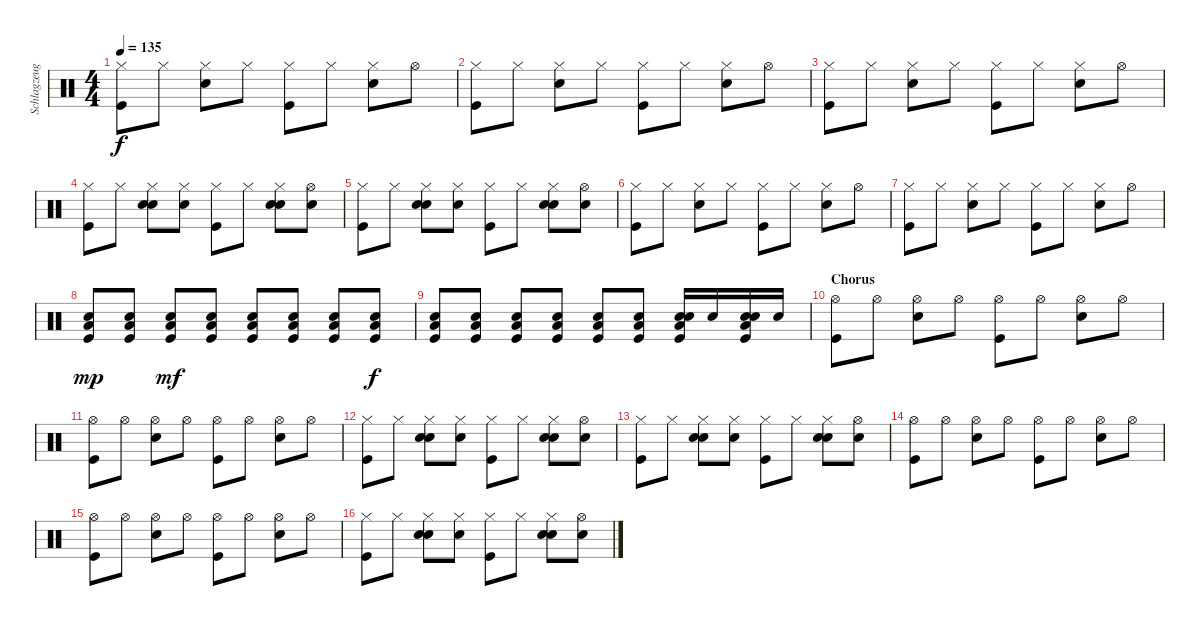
\track ("Schlagzeug - Bela B." "Schlagzeug") {instrument percussion}
\staff {score}
\articulation defaults
\ts (4 4)
\tempo 135
\clef neutral
\ks c
("Kick (hit)" "Hi-Hat (closed)").8{dy f} "Hi-Hat (closed)".8 ("Electric Snare (hit)" "Hi-Hat (closed)").8 "Hi-Hat (closed)".8 ("Kick (hit)" "Hi-Hat (closed)").8 "Hi-Hat (closed)".8 ("Electric Snare (hit)" "Hi-Hat (closed)").8 "Hi-Hat (open)".8 |
("Kick (hit)" "Hi-Hat (closed)").8 "Hi-Hat (closed)".8 ("Electric Snare (hit)" "Hi-Hat (closed)").8 "Hi-Hat (closed)".8 ("Kick (hit)" "Hi-Hat (closed)").8 "Hi-Hat (closed)".8 ("Electric Snare (hit)" "Hi-Hat (closed)").8 "Hi-Hat (open)".8 |
("Kick (hit)" "Hi-Hat (closed)").8 "Hi-Hat (closed)".8 ("Electric Snare (hit)" "Hi-Hat (closed)").8 "Hi-Hat (closed)".8 ("Kick (hit)" "Hi-Hat (closed)").8 "Hi-Hat (closed)".8 ("Electric Snare (hit)" "Hi-Hat (closed)").8 "Hi-Hat (open)".8 |
("Kick (hit)" "Hi-Hat (closed)").8 "Hi-Hat (closed)".8 ("Hand Clap (hit)" "Hi-Hat (closed)" "Electric Snare (hit)").8 ("Hi-Hat (closed)" "Hand Clap (hit)").8 ("Kick (hit)" "Hi-Hat (closed)").8 "Hi-Hat (closed)".8 ("Hand Clap (hit)" "Hi-Hat (closed)" "Electric Snare (hit)").8 ("Hi-Hat (open)" "Hand Clap (hit)").8 |
("Kick (hit)" "Hi-Hat (closed)").8 "Hi-Hat (closed)".8 ("Electric Snare (hit)" "Hi-Hat (closed)" "Hand Clap (hit)").8 ("Hi-Hat (closed)" "Hand Clap (hit)").8 ("Kick (hit)" "Hi-Hat (closed)").8 "Hi-Hat (closed)".8 ("Electric Snare (hit)" "Hi-Hat (closed)" "Hand Clap (hit)").8 ("Hi-Hat (open)" "Hand Clap (hit)").8 |
("Kick (hit)" "Hi-Hat (closed)").8 "Hi-Hat (closed)".8 ("Electric Snare (hit)" "Hi-Hat (closed)").8 "Hi-Hat (closed)".8 ("Kick (hit)" "Hi-Hat (closed)").8 "Hi-Hat (closed)".8 ("Electric Snare (hit)" "Hi-Hat (closed)").8 "Hi-Hat (open)".8 |
("Kick (hit)" "Hi-Hat (closed)").8 "Hi-Hat (closed)".8 ("Electric Snare (hit)" "Hi-Hat (closed)").8 "Hi-Hat (closed)".8 ("Kick (hit)" "Hi-Hat (closed)").8 "Hi-Hat (closed)".8 ("Electric Snare (hit)" "Hi-Hat (closed)").8 "Hi-Hat (open)".8 |
("Kick (hit)" "Snare (hit) 2" "Low Floor Tom (hit)").8{dy mp} ("Kick (hit)" "Snare (hit) 2" "Low Floor Tom (hit)").8 ("Kick (hit)" "Low Floor Tom (hit)" "Snare (hit) 2").8{dy mf} ("Kick (hit)" "Snare (hit) 2" "Low Floor Tom (hit)").8 ("Kick (hit)" "Low Floor Tom (hit)" "Snare (hit) 2").8 ("Kick (hit)" "Low Floor Tom (hit)" "Snare (hit) 2").8 ("Kick (hit)" "Low Floor Tom (hit)" "Snare (hit) 2").8 ("Kick (hit)" "Snare (hit) 2" "Low Floor Tom (hit)").8{dy f} |
("Kick (hit)" "Snare (hit) 2" "Low Floor Tom (hit)").8 ("Kick (hit)" "Snare (hit) 2" "Low Floor Tom (hit)").8 ("Kick (hit)" "Low Floor Tom (hit)" "Snare (hit) 2").8 ("Kick (hit)" "Snare (hit) 2" "Low Floor Tom (hit)").8 ("Kick (hit)" "Low Floor Tom (hit)" "Snare (hit) 2").8 ("Kick (hit)" "Low Floor Tom (hit)" "Snare (hit) 2").8 ("Kick (hit)" "Low Floor Tom (hit)" "Snare (hit) 2" "Electric Snare (hit)").16 "Electric Snare (hit)".16 ("Kick (hit)" "Snare (hit) 2" "Low Floor Tom (hit)" "Electric Snare (hit)").16 "Electric Snare (hit)".16 |
\section ("" "Chorus")
("Kick (hit)" "Hi-Hat (open)").8 "Hi-Hat (open)".8 ("Electric Snare (hit)" "Hi-Hat (open)").8 "Hi-Hat (open)".8 ("Kick (hit)" "Hi-Hat (open)").8 "Hi-Hat (open)".8 ("Electric Snare (hit)" "Hi-Hat (open)").8 "Hi-Hat (open)".8 |
("Kick (hit)" "Hi-Hat (open)").8 "Hi-Hat (open)".8 ("Electric Snare (hit)" "Hi-Hat (open)").8 "Hi-Hat (open)".8 ("Kick (hit)" "Hi-Hat (open)").8 "Hi-Hat (open)".8 ("Electric Snare (hit)" "Hi-Hat (open)").8 "Hi-Hat (open)".8 |
("Kick (hit)" "Hi-Hat (closed)").8 "Hi-Hat (closed)".8 ("Hand Clap (hit)" "Hi-Hat (closed)" "Electric Snare (hit)").8 ("Hi-Hat (closed)" "Hand Clap (hit)").8 ("Kick (hit)" "Hi-Hat (closed)").8 "Hi-Hat (closed)".8 ("Hand Clap (hit)" "Hi-Hat (closed)" "Electric Snare (hit)").8 ("Hi-Hat (open)" "Hand Clap (hit)").8 |
("Kick (hit)" "Hi-Hat (closed)").8 "Hi-Hat (closed)".8 ("Electric Snare (hit)" "Hi-Hat (closed)" "Hand Clap (hit)").8 ("Hi-Hat (closed)" "Hand Clap (hit)").8 ("Kick (hit)" "Hi-Hat (closed)").8 "Hi-Hat (closed)".8 ("Electric Snare (hit)" "Hi-Hat (closed)" "Hand Clap (hit)").8 ("Hi-Hat (open)" "Hand Clap (hit)").8 |
("Kick (hit)" "Hi-Hat (open)").8 "Hi-Hat (open)".8 ("Electric Snare (hit)" "Hi-Hat (open)").8 "Hi-Hat (open)".8 ("Kick (hit)" "Hi-Hat (open)").8 "Hi-Hat (open)".8 ("Electric Snare (hit)" "Hi-Hat (open)").8 "Hi-Hat (open)".8 |
("Kick (hit)" "Hi-Hat (open)").8 "Hi-Hat (open)".8 ("Electric Snare (hit)" "Hi-Hat (open)").8 "Hi-Hat (open)".8 ("Kick (hit)" "Hi-Hat (open)").8 "Hi-Hat (open)".8 ("Electric Snare (hit)" "Hi-Hat (open)").8 "Hi-Hat (open)".8 |
("Kick (hit)" "Hi-Hat (closed)").8 "Hi-Hat (closed)".8 ("Hand Clap (hit)" "Hi-Hat (closed)" "Electric Snare (hit)").8 ("Hi-Hat (closed)" "Hand Clap (hit)").8 ("Kick (hit)" "Hi-Hat (closed)").8 "Hi-Hat (closed)".8 ("Hand Clap (hit)" "Hi-Hat (closed)" "Electric Snare (hit)").8 ("Hi-Hat (open)" "Hand Clap (hit)").8
